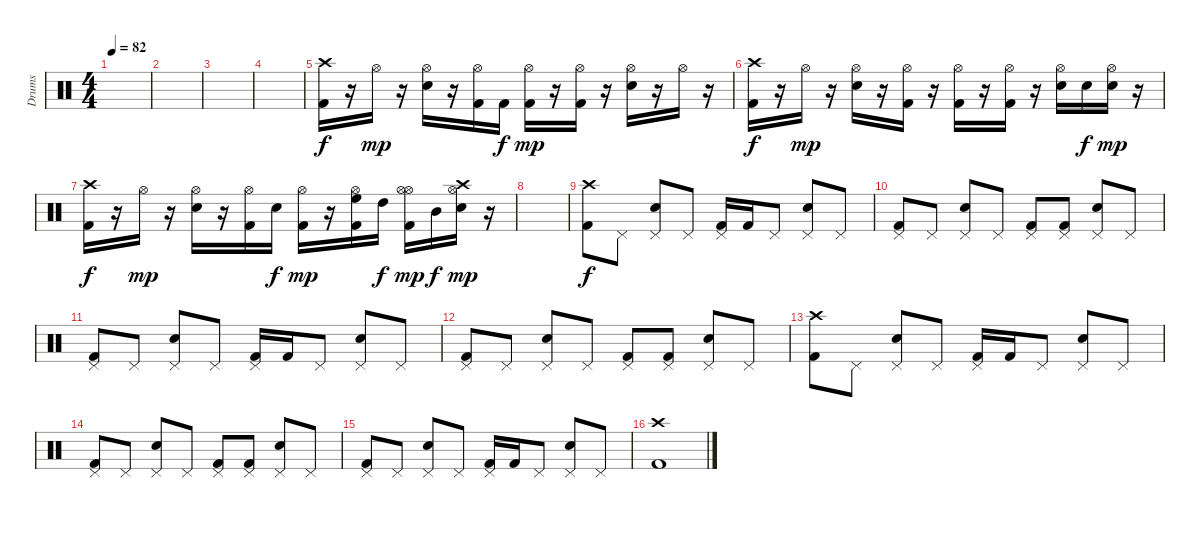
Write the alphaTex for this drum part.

\track ("Drums" "Drums") {instrument percussion}
\staff {score}
\articulation defaults
\ts (4 4)
\tempo 82
\clef neutral
\ks c
|
|
|
|
("Kick (hit) 2" "Crash high (hit)").16 r.16 "Hi-Hat (open)".16{dy mp} r.16 ("Snare (hit) 2" "Hi-Hat (open)").16 r.16 ("Kick (hit) 2" "Hi-Hat (open)").16 "Kick (hit) 2".16{dy f} ("Kick (hit) 2" "Hi-Hat (open)").16{dy mp} r.16 ("Kick (hit) 2" "Hi-Hat (open)").16 r.16 ("Snare (hit) 2" "Hi-Hat (open)").16 r.16 "Hi-Hat (open)".16 r.16 |
("Kick (hit) 2" "Crash high (hit)").16{dy f} r.16 "Hi-Hat (open)".16{dy mp} r.16 ("Snare (hit) 2" "Hi-Hat (open)").16 r.16 ("Kick (hit) 2" "Hi-Hat (open)").16 r.16 ("Kick (hit) 2" "Hi-Hat (open)").16 r.16 ("Kick (hit) 2" "Hi-Hat (open)").16 r.16 ("Snare (hit) 2" "Hi-Hat (open)").16 "Snare (hit) 2".16{dy f} ("Snare (hit) 2" "Hi-Hat (open)").16{dy mp} r.16 |
("Kick (hit) 2" "Crash high (hit)").16{dy f} r.16 "Hi-Hat (open)".16{dy mp} r.16 ("Snare (hit) 2" "Hi-Hat (open)").16 r.16 ("Kick (hit) 2" "Hi-Hat (open)").16 "Snare (hit) 2".16{dy f} ("Kick (hit) 2" "Hi-Hat (open)").16{dy mp} r.16 ("Kick (hit) 2" "High Floor Tom (hit)" "Hi-Hat (open)").16 "High Tom (hit)".16{dy f} ("Kick (hit) 2" "Hi-Hat (open)" "Hi-Hat (open)").16{dy mp} "Mid Tom (hit)".16{dy f} ("Snare (hit) 2" "Crash high (hit)" "Hi-Hat (open)").16{dy mp} r.16 |
|
("Kick (hit) 2" "Crash high (hit)").8{dy f} "Pedal Hi-Hat (hit)".8 ("Snare (hit) 2" "Pedal Hi-Hat (hit)").8 "Pedal Hi-Hat (hit)".8 ("Kick (hit) 2" "Pedal Hi-Hat (hit)").16 "Kick (hit) 2".16 "Pedal Hi-Hat (hit)".8 ("Snare (hit) 2" "Pedal Hi-Hat (hit)").8 "Pedal Hi-Hat (hit)".8 |
("Kick (hit) 2" "Pedal Hi-Hat (hit)").8 "Pedal Hi-Hat (hit)".8 ("Snare (hit) 2" "Pedal Hi-Hat (hit)").8 "Pedal Hi-Hat (hit)".8 ("Kick (hit) 2" "Pedal Hi-Hat (hit)").8 ("Kick (hit) 2" "Pedal Hi-Hat (hit)").8 ("Snare (hit) 2" "Pedal Hi-Hat (hit)").8 "Pedal Hi-Hat (hit)".8 |
("Kick (hit) 2" "Pedal Hi-Hat (hit)").8 "Pedal Hi-Hat (hit)".8 ("Snare (hit) 2" "Pedal Hi-Hat (hit)").8 "Pedal Hi-Hat (hit)".8 ("Kick (hit) 2" "Pedal Hi-Hat (hit)").16 "Kick (hit) 2".16 "Pedal Hi-Hat (hit)".8 ("Snare (hit) 2" "Pedal Hi-Hat (hit)").8 "Pedal Hi-Hat (hit)".8 |
("Kick (hit) 2" "Pedal Hi-Hat (hit)").8 "Pedal Hi-Hat (hit)".8 ("Snare (hit) 2" "Pedal Hi-Hat (hit)").8 "Pedal Hi-Hat (hit)".8 ("Kick (hit) 2" "Pedal Hi-Hat (hit)").8 ("Kick (hit) 2" "Pedal Hi-Hat (hit)").8 ("Snare (hit) 2" "Pedal Hi-Hat (hit)").8 "Pedal Hi-Hat (hit)".8 |
("Kick (hit) 2" "Crash high (hit)").8 "Pedal Hi-Hat (hit)".8 ("Snare (hit) 2" "Pedal Hi-Hat (hit)").8 "Pedal Hi-Hat (hit)".8 ("Kick (hit) 2" "Pedal Hi-Hat (hit)").16 "Kick (hit) 2".16 "Pedal Hi-Hat (hit)".8 ("Snare (hit) 2" "Pedal Hi-Hat (hit)").8 "Pedal Hi-Hat (hit)".8 |
("Kick (hit) 2" "Pedal Hi-Hat (hit)").8 "Pedal Hi-Hat (hit)".8 ("Snare (hit) 2" "Pedal Hi-Hat (hit)").8 "Pedal Hi-Hat (hit)".8 ("Kick (hit) 2" "Pedal Hi-Hat (hit)").8 ("Kick (hit) 2" "Pedal Hi-Hat (hit)").8 ("Snare (hit) 2" "Pedal Hi-Hat (hit)").8 "Pedal Hi-Hat (hit)".8 |
("Kick (hit) 2" "Pedal Hi-Hat (hit)").8 "Pedal Hi-Hat (hit)".8 ("Snare (hit) 2" "Pedal Hi-Hat (hit)").8 "Pedal Hi-Hat (hit)".8 ("Kick (hit) 2" "Pedal Hi-Hat (hit)").16 "Kick (hit) 2".16 "Pedal Hi-Hat (hit)".8 ("Snare (hit) 2" "Pedal Hi-Hat (hit)").8 "Pedal Hi-Hat (hit)".8 |
("Kick (hit) 2" "Crash high (hit)").1
